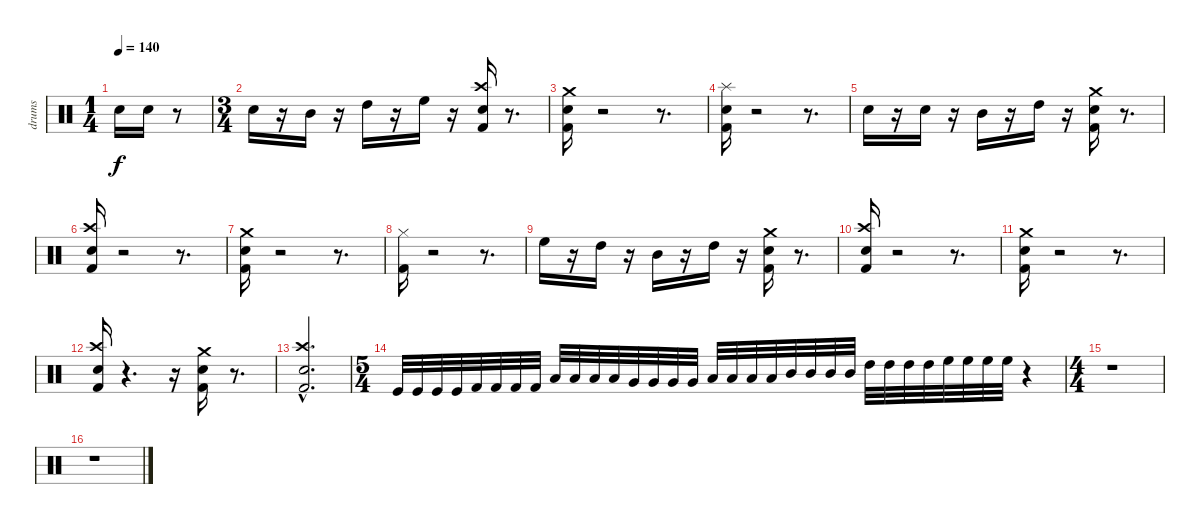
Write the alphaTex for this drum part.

\track ("drums" "drums") {instrument percussion}
\staff {score}
\articulation defaults
\ts (1 4)
\tempo 140
\clef neutral
\ks c "Snare (hit) 2".16{dy f} "Snare (hit) 2".16
r.8 |
\ts (3 4)
"Snare (hit) 2".16 r.16 "Mid Tom (hit)".16 r.16 "High Tom (hit)".16 r.16 "High Floor Tom (hit)".16 r.16 ("Crash high (hit)" "Snare (hit) 2" "Kick (hit) 2").16 r.8{d} |
("Crash medium (hit)" "Snare (hit) 2" "Kick (hit) 2").16 r.2 r.8{d} |
("Splash (hit)" "Snare (hit) 2" "Kick (hit) 2").16 r.2 r.8{d} |
"Snare (hit) 2".16 r.16 "Snare (hit) 2".16 r.16 "Mid Tom (hit)".16 r.16 "High Tom (hit)".16 r.16 ("Crash medium (hit)" "Snare (hit) 2" "Kick (hit) 2").16 r.8{d} |
("Crash high (hit)" "Snare (hit) 2" "Kick (hit) 2").16 r.2 r.8{d} |
("Crash medium (hit)" "Snare (hit) 2" "Kick (hit) 2").16 r.2 r.8{d} |
("Hi-Hat (closed)" "Kick (hit) 2").16 r.2 r.8{d} |
"High Floor Tom (hit)".16 r.16 "High Tom (hit)".16 r.16 "Mid Tom (hit)".16 r.16 "High Tom (hit)".16 r.16 ("Kick (hit) 2" "Crash medium (hit)" "Snare (hit) 2").16 r.8{d} |
("Kick (hit) 2" "Crash high (hit)" "Snare (hit) 2").16 r.2 r.8{d} |
("Kick (hit) 2" "Crash medium (hit)" "Snare (hit) 2").16 r.2 r.8{d} |
("Snare (hit) 2" "Crash high (hit)" "Kick (hit) 2").16 r.4{d} r.16 ("Crash medium (hit)" "Snare (hit) 2" "Kick (hit) 2").16 r.8{d} |
("Snare (hit) 2"{hac} "Crash high (hit)"{hac} "Kick (hit) 2").2{d} |
\ts (5 4)
"Kick (hit)".32 "Kick (hit)".32 "Kick (hit)".32 "Kick (hit)".32 "Kick (hit) 2".32 "Kick (hit) 2".32 "Kick (hit) 2".32 "Kick (hit) 2".32 "Low Floor Tom (hit)".32 "Low Floor Tom (hit)".32 "Low Floor Tom (hit)".32 "Low Floor Tom (hit)".32 "Very Low Tom (hit)".32 "Very Low Tom (hit)".32 "Very Low Tom (hit)".32 "Very Low Tom (hit)".32 "Low Tom (hit)".32 "Low Tom (hit)".32 "Low Tom (hit)".32 "Low Tom (hit)".32 "Mid Tom (hit)".32 "Mid Tom (hit)".32 "Mid Tom (hit)".32 "Mid Tom (hit)".32 "High Tom (hit)".32 "High Tom (hit)".32 "High Tom (hit)".32 "High Tom (hit)".32 "High Floor Tom (hit)".32 "High Floor Tom (hit)".32 "High Floor Tom (hit)".32 "High Floor Tom (hit)".32 r.4 |
\ts (4 4)
r.1 |
r.1
